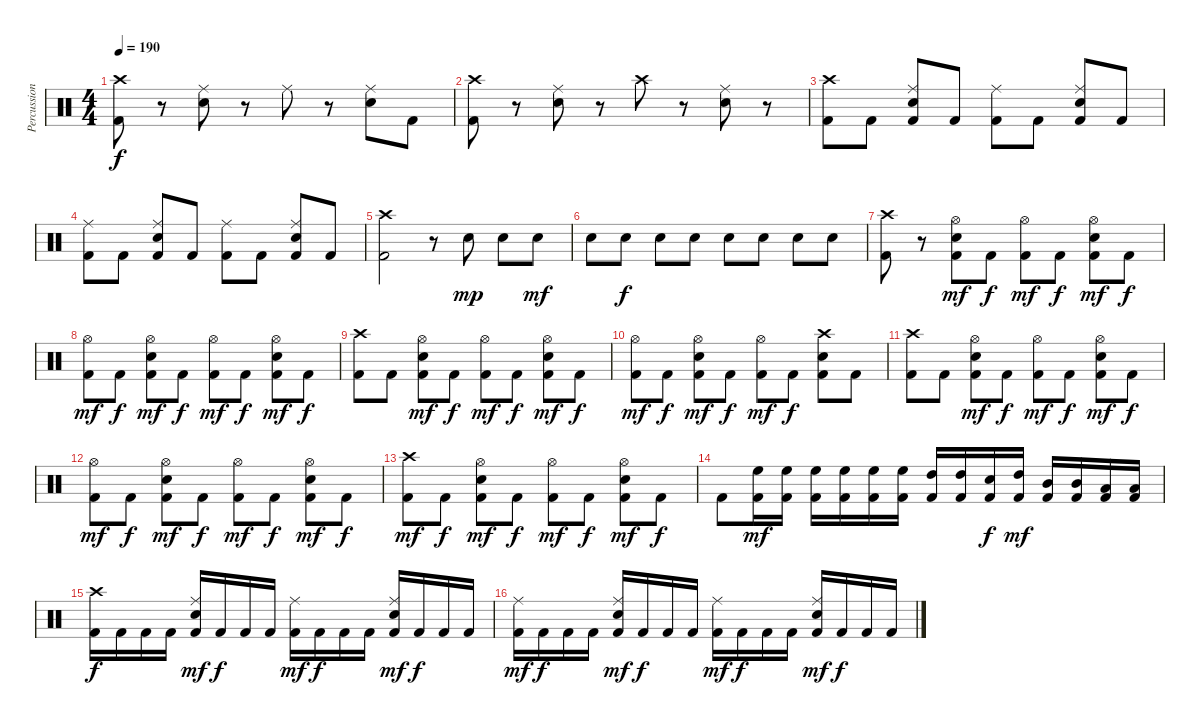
\track ("Percussion" "Percussion") {instrument percussion}
\staff {score}
\articulation defaults
\ts (4 4)
\tempo 190
\clef neutral
\ks c
("Crash high (hit)" "Kick (hit) 2").8{dy f} r.8 ("Ride (middle)" "Snare (hit) 2").8 r.8 "Ride (middle)".8 r.8 ("Ride (middle)" "Snare (hit) 2").8 "Kick (hit) 2".8 |
("Crash high (hit)" "Kick (hit) 2").8 r.8 ("Ride (middle)" "Snare (hit) 2").8 r.8 "Crash high (hit)".8 r.8 ("Ride (middle)" "Snare (hit) 2").8 r.8 |
("Crash high (hit)" "Kick (hit) 2").8 "Kick (hit) 2".8 ("Ride (middle)" "Snare (hit) 2" "Kick (hit) 2").8 "Kick (hit) 2".8 ("Ride (middle)" "Kick (hit) 2").8 "Kick (hit) 2".8 ("Ride (middle)" "Snare (hit) 2" "Kick (hit) 2").8 "Kick (hit) 2".8 |
("Ride (middle)" "Kick (hit) 2").8 "Kick (hit) 2".8 ("Ride (middle)" "Snare (hit) 2" "Kick (hit) 2").8 "Kick (hit) 2".8 ("Ride (middle)" "Kick (hit) 2").8 "Kick (hit) 2".8 ("Ride (middle)" "Snare (hit) 2" "Kick (hit) 2").8 "Kick (hit) 2".8 |
("Crash high (hit)" "Kick (hit) 2").2 r.8 "Snare (hit) 2".8{dy mp} "Snare (hit) 2".8 "Snare (hit) 2".8{dy mf} |
"Snare (hit) 2".8 "Snare (hit) 2".8{dy f} "Snare (hit) 2".8 "Snare (hit) 2".8 "Snare (hit) 2".8 "Snare (hit) 2".8 "Snare (hit) 2".8 "Snare (hit) 2".8 |
("Crash high (hit)" "Kick (hit) 2").8 r.8 ("Hi-Hat (open)" "Snare (hit) 2" "Kick (hit) 2").8{dy mf} "Kick (hit) 2".8{dy f} ("Hi-Hat (open)" "Kick (hit) 2").8{dy mf} "Kick (hit) 2".8{dy f} ("Hi-Hat (open)" "Snare (hit) 2" "Kick (hit) 2").8{dy mf} "Kick (hit) 2".8{dy f} |
("Hi-Hat (open)" "Kick (hit) 2").8{dy mf} "Kick (hit) 2".8{dy f} ("Hi-Hat (open)" "Snare (hit) 2" "Kick (hit) 2").8{dy mf} "Kick (hit) 2".8{dy f} ("Hi-Hat (open)" "Kick (hit) 2").8{dy mf} "Kick (hit) 2".8{dy f} ("Hi-Hat (open)" "Snare (hit) 2" "Kick (hit) 2").8{dy mf} "Kick (hit) 2".8{dy f} |
("Crash high (hit)" "Kick (hit) 2").8 "Kick (hit) 2".8 ("Hi-Hat (open)" "Snare (hit) 2" "Kick (hit) 2").8{dy mf} "Kick (hit) 2".8{dy f} ("Hi-Hat (open)" "Kick (hit) 2").8{dy mf} "Kick (hit) 2".8{dy f} ("Hi-Hat (open)" "Snare (hit) 2" "Kick (hit) 2").8{dy mf} "Kick (hit) 2".8{dy f} |
("Hi-Hat (open)" "Kick (hit) 2").8{dy mf} "Kick (hit) 2".8{dy f} ("Hi-Hat (open)" "Snare (hit) 2" "Kick (hit) 2").8{dy mf} "Kick (hit) 2".8{dy f} ("Hi-Hat (open)" "Kick (hit) 2").8{dy mf} "Kick (hit) 2".8{dy f} ("Crash high (hit)" "Snare (hit) 2" "Kick (hit) 2").8 "Kick (hit) 2".8 |
("Crash high (hit)" "Kick (hit) 2").8 "Kick (hit) 2".8 ("Hi-Hat (open)" "Snare (hit) 2" "Kick (hit) 2").8{dy mf} "Kick (hit) 2".8{dy f} ("Hi-Hat (open)" "Kick (hit) 2").8{dy mf} "Kick (hit) 2".8{dy f} ("Hi-Hat (open)" "Snare (hit) 2" "Kick (hit) 2").8{dy mf} "Kick (hit) 2".8{dy f} |
("Hi-Hat (open)" "Kick (hit) 2").8{dy mf} "Kick (hit) 2".8{dy f} ("Hi-Hat (open)" "Snare (hit) 2" "Kick (hit) 2").8{dy mf} "Kick (hit) 2".8{dy f} ("Hi-Hat (open)" "Kick (hit) 2").8{dy mf} "Kick (hit) 2".8{dy f} ("Hi-Hat (open)" "Snare (hit) 2" "Kick (hit) 2").8{dy mf} "Kick (hit) 2".8{dy f} |
("Crash high (hit)" "Kick (hit) 2").8{dy mf} "Kick (hit) 2".8{dy f} ("Hi-Hat (open)" "Snare (hit) 2" "Kick (hit) 2").8{dy mf} "Kick (hit) 2".8{dy f} ("Hi-Hat (open)" "Kick (hit) 2").8{dy mf} "Kick (hit) 2".8{dy f} ("Hi-Hat (open)" "Snare (hit) 2" "Kick (hit) 2").8{dy mf} "Kick (hit) 2".8{dy f} |
"Kick (hit) 2".8 ("High Floor Tom (hit)" "Kick (hit) 2").16{dy mf} ("High Floor Tom (hit)" "Kick (hit) 2").16 ("High Floor Tom (hit)" "Kick (hit) 2").16 ("High Floor Tom (hit)" "Kick (hit) 2").16 ("High Floor Tom (hit)" "Kick (hit) 2").16 ("High Floor Tom (hit)" "Kick (hit) 2").16 ("High Tom (hit)" "Kick (hit) 2").16 ("High Tom (hit)" "Kick (hit) 2").16 ("Snare (hit) 2" "Kick (hit) 2").16{dy f} ("High Tom (hit)" "Kick (hit) 2").16{dy mf} ("Mid Tom (hit)" "Kick (hit) 2").16 ("Mid Tom (hit)" "Kick (hit) 2").16 ("Low Tom (hit)" "Kick (hit) 2").16 ("Low Tom (hit)" "Kick (hit) 2").16 |
("Crash high (hit)" "Kick (hit) 2").16{dy f} "Kick (hit) 2".16 "Kick (hit) 2".16 "Kick (hit) 2".16 ("Ride (middle)" "Snare (hit) 2" "Kick (hit) 2").16{dy mf} "Kick (hit) 2".16{dy f} "Kick (hit) 2".16 "Kick (hit) 2".16 ("Ride (middle)" "Kick (hit) 2").16{dy mf} "Kick (hit) 2".16{dy f} "Kick (hit) 2".16 "Kick (hit) 2".16 ("Ride (middle)" "Snare (hit) 2" "Kick (hit) 2").16{dy mf} "Kick (hit) 2".16{dy f} "Kick (hit) 2".16 "Kick (hit) 2".16 |
("Ride (middle)" "Kick (hit) 2").16{dy mf} "Kick (hit) 2".16{dy f} "Kick (hit) 2".16 "Kick (hit) 2".16 ("Ride (middle)" "Snare (hit) 2" "Kick (hit) 2").16{dy mf} "Kick (hit) 2".16{dy f} "Kick (hit) 2".16 "Kick (hit) 2".16 ("Ride (middle)" "Kick (hit) 2").16{dy mf} "Kick (hit) 2".16{dy f} "Kick (hit) 2".16 "Kick (hit) 2".16 ("Ride (middle)" "Snare (hit) 2" "Kick (hit) 2").16{dy mf} "Kick (hit) 2".16{dy f} "Kick (hit) 2".16 "Kick (hit) 2".16
